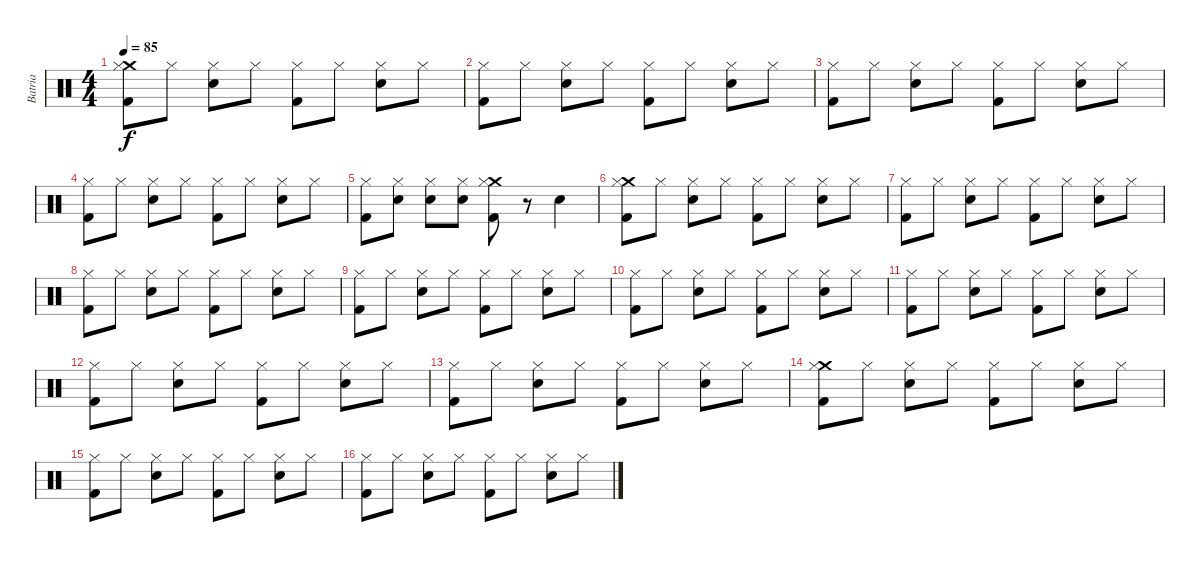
\track ("Batria" "Batria") {instrument percussion}
\staff {score}
\articulation defaults
\ts (4 4)
\tempo 85
\clef neutral
\ks c
("Crash medium (hit)" "Hi-Hat (closed)" "Kick (hit) 2").8{dy f} "Hi-Hat (closed)".8 ("Hi-Hat (closed)" "Snare (hit) 2").8 "Hi-Hat (closed)".8 ("Hi-Hat (closed)" "Kick (hit) 2").8 "Hi-Hat (closed)".8 ("Hi-Hat (closed)" "Snare (hit) 2").8 "Hi-Hat (closed)".8 |
("Hi-Hat (closed)" "Kick (hit) 2").8 "Hi-Hat (closed)".8 ("Hi-Hat (closed)" "Snare (hit) 2").8 "Hi-Hat (closed)".8 ("Hi-Hat (closed)" "Kick (hit) 2").8 "Hi-Hat (closed)".8 ("Hi-Hat (closed)" "Snare (hit) 2").8 "Hi-Hat (closed)".8 |
("Hi-Hat (closed)" "Kick (hit) 2").8 "Hi-Hat (closed)".8 ("Hi-Hat (closed)" "Snare (hit) 2").8 "Hi-Hat (closed)".8 ("Hi-Hat (closed)" "Kick (hit) 2").8 "Hi-Hat (closed)".8 ("Hi-Hat (closed)" "Snare (hit) 2").8 "Hi-Hat (closed)".8 |
("Hi-Hat (closed)" "Kick (hit) 2").8 "Hi-Hat (closed)".8 ("Hi-Hat (closed)" "Snare (hit) 2").8 "Hi-Hat (closed)".8 ("Hi-Hat (closed)" "Kick (hit) 2").8 "Hi-Hat (closed)".8 ("Hi-Hat (closed)" "Snare (hit) 2").8 "Hi-Hat (closed)".8 |
("Hi-Hat (closed)" "Kick (hit) 2").8 ("Hi-Hat (closed)" "Snare (hit) 2").8 ("Hi-Hat (closed)" "Snare (hit) 2").8 ("Hi-Hat (closed)" "Snare (hit) 2").8 ("Crash medium (hit)" "Hi-Hat (closed)" "Kick (hit) 2").8 r.8 "Snare (hit) 2".4 |
("Crash medium (hit)" "Hi-Hat (closed)" "Kick (hit) 2").8 "Hi-Hat (closed)".8 ("Hi-Hat (closed)" "Snare (hit) 2").8 "Hi-Hat (closed)".8 ("Hi-Hat (closed)" "Kick (hit) 2").8 "Hi-Hat (closed)".8 ("Hi-Hat (closed)" "Snare (hit) 2").8 "Hi-Hat (closed)".8 |
("Hi-Hat (closed)" "Kick (hit) 2").8 "Hi-Hat (closed)".8 ("Hi-Hat (closed)" "Snare (hit) 2").8 "Hi-Hat (closed)".8 ("Hi-Hat (closed)" "Kick (hit) 2").8 "Hi-Hat (closed)".8 ("Hi-Hat (closed)" "Snare (hit) 2").8 "Hi-Hat (closed)".8 |
("Hi-Hat (closed)" "Kick (hit) 2").8 "Hi-Hat (closed)".8 ("Hi-Hat (closed)" "Snare (hit) 2").8 "Hi-Hat (closed)".8 ("Hi-Hat (closed)" "Kick (hit) 2").8 "Hi-Hat (closed)".8 ("Hi-Hat (closed)" "Snare (hit) 2").8 "Hi-Hat (closed)".8 |
("Hi-Hat (closed)" "Kick (hit) 2").8 "Hi-Hat (closed)".8 ("Hi-Hat (closed)" "Snare (hit) 2").8 "Hi-Hat (closed)".8 ("Hi-Hat (closed)" "Kick (hit) 2").8 "Hi-Hat (closed)".8 ("Hi-Hat (closed)" "Snare (hit) 2").8 "Hi-Hat (closed)".8 |
("Hi-Hat (closed)" "Kick (hit) 2").8 "Hi-Hat (closed)".8 ("Hi-Hat (closed)" "Snare (hit) 2").8 "Hi-Hat (closed)".8 ("Hi-Hat (closed)" "Kick (hit) 2").8 "Hi-Hat (closed)".8 ("Hi-Hat (closed)" "Snare (hit) 2").8 "Hi-Hat (closed)".8 |
("Hi-Hat (closed)" "Kick (hit) 2").8 "Hi-Hat (closed)".8 ("Hi-Hat (closed)" "Snare (hit) 2").8 "Hi-Hat (closed)".8 ("Hi-Hat (closed)" "Kick (hit) 2").8 "Hi-Hat (closed)".8 ("Hi-Hat (closed)" "Snare (hit) 2").8 "Hi-Hat (closed)".8 |
("Hi-Hat (closed)" "Kick (hit) 2").8 "Hi-Hat (closed)".8 ("Hi-Hat (closed)" "Snare (hit) 2").8 "Hi-Hat (closed)".8 ("Hi-Hat (closed)" "Kick (hit) 2").8 "Hi-Hat (closed)".8 ("Hi-Hat (closed)" "Snare (hit) 2").8 "Hi-Hat (closed)".8 |
("Hi-Hat (closed)" "Kick (hit) 2").8 "Hi-Hat (closed)".8 ("Hi-Hat (closed)" "Snare (hit) 2").8 "Hi-Hat (closed)".8 ("Hi-Hat (closed)" "Kick (hit) 2").8 "Hi-Hat (closed)".8 ("Hi-Hat (closed)" "Snare (hit) 2").8 "Hi-Hat (closed)".8 |
("Crash medium (hit)" "Hi-Hat (closed)" "Kick (hit) 2").8 "Hi-Hat (closed)".8 ("Hi-Hat (closed)" "Snare (hit) 2").8 "Hi-Hat (closed)".8 ("Hi-Hat (closed)" "Kick (hit) 2").8 "Hi-Hat (closed)".8 ("Hi-Hat (closed)" "Snare (hit) 2").8 "Hi-Hat (closed)".8 |
("Hi-Hat (closed)" "Kick (hit) 2").8 "Hi-Hat (closed)".8 ("Hi-Hat (closed)" "Snare (hit) 2").8 "Hi-Hat (closed)".8 ("Hi-Hat (closed)" "Kick (hit) 2").8 "Hi-Hat (closed)".8 ("Hi-Hat (closed)" "Snare (hit) 2").8 "Hi-Hat (closed)".8 |
("Hi-Hat (closed)" "Kick (hit) 2").8 "Hi-Hat (closed)".8 ("Hi-Hat (closed)" "Snare (hit) 2").8 "Hi-Hat (closed)".8 ("Hi-Hat (closed)" "Kick (hit) 2").8 "Hi-Hat (closed)".8 ("Hi-Hat (closed)" "Snare (hit) 2").8 "Hi-Hat (closed)".8
